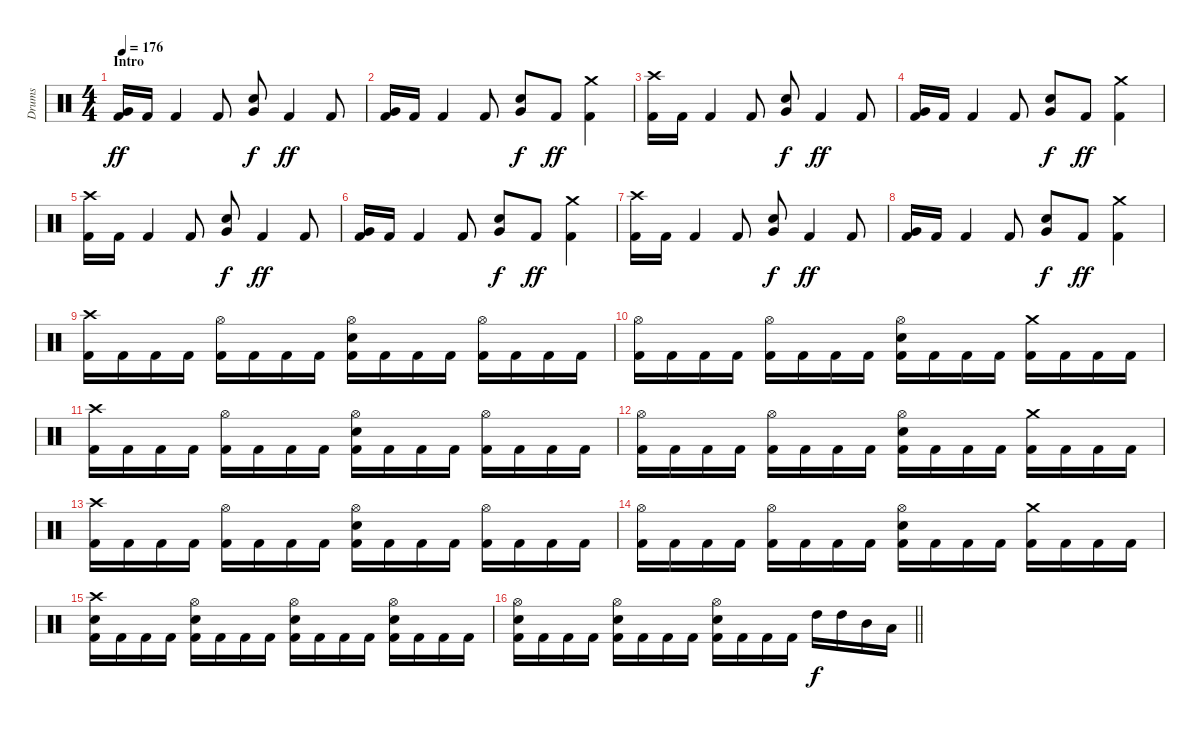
\track ("Drums" "Drums") {instrument percussion}
\staff {score}
\articulation defaults
\ts (4 4)
\section ("" "Intro")
\tempo 176
\clef neutral
\ks c
("Very Low Tom (hit)" "Kick (hit) 2").16{dy ff} "Kick (hit) 2".16 "Kick (hit) 2".4 "Kick (hit) 2".8 ("Very Low Tom (hit)" "Electric Snare (hit)").8{dy f} "Kick (hit) 2".4{dy ff} "Kick (hit) 2".8 |
("Very Low Tom (hit)" "Kick (hit) 2").16 "Kick (hit) 2".16 "Kick (hit) 2".4 "Kick (hit) 2".8 ("Very Low Tom (hit)" "Electric Snare (hit)").8{dy f} "Kick (hit) 2".8{dy ff} ("Crash medium (hit)" "Kick (hit) 2").4 |
("Crash high (hit)" "Kick (hit) 2").16 "Kick (hit) 2".16 "Kick (hit) 2".4 "Kick (hit) 2".8 ("Very Low Tom (hit)" "Electric Snare (hit)").8{dy f} "Kick (hit) 2".4{dy ff} "Kick (hit) 2".8 |
("Very Low Tom (hit)" "Kick (hit) 2").16 "Kick (hit) 2".16 "Kick (hit) 2".4 "Kick (hit) 2".8 ("Very Low Tom (hit)" "Electric Snare (hit)").8{dy f} "Kick (hit) 2".8{dy ff} ("Crash medium (hit)" "Kick (hit) 2").4 |
("Crash high (hit)" "Kick (hit) 2").16 "Kick (hit) 2".16 "Kick (hit) 2".4 "Kick (hit) 2".8 ("Very Low Tom (hit)" "Electric Snare (hit)").8{dy f} "Kick (hit) 2".4{dy ff} "Kick (hit) 2".8 |
("Very Low Tom (hit)" "Kick (hit) 2").16 "Kick (hit) 2".16 "Kick (hit) 2".4 "Kick (hit) 2".8 ("Very Low Tom (hit)" "Electric Snare (hit)").8{dy f} "Kick (hit) 2".8{dy ff} ("Crash medium (hit)" "Kick (hit) 2").4 |
("Crash high (hit)" "Kick (hit) 2").16 "Kick (hit) 2".16 "Kick (hit) 2".4 "Kick (hit) 2".8 ("Very Low Tom (hit)" "Electric Snare (hit)").8{dy f} "Kick (hit) 2".4{dy ff} "Kick (hit) 2".8 |
("Very Low Tom (hit)" "Kick (hit) 2").16 "Kick (hit) 2".16 "Kick (hit) 2".4 "Kick (hit) 2".8 ("Very Low Tom (hit)" "Electric Snare (hit)").8{dy f} "Kick (hit) 2".8{dy ff} ("Crash medium (hit)" "Kick (hit) 2").4 |
("Crash high (hit)" "Kick (hit) 2").16 "Kick (hit) 2".16 "Kick (hit) 2".16 "Kick (hit) 2".16 ("Hi-Hat (open)" "Kick (hit) 2").16 "Kick (hit) 2".16 "Kick (hit) 2".16 "Kick (hit) 2".16 ("Hi-Hat (open)" "Electric Snare (hit)" "Kick (hit) 2").16 "Kick (hit) 2".16 "Kick (hit) 2".16 "Kick (hit) 2".16 ("Hi-Hat (open)" "Kick (hit) 2").16 "Kick (hit) 2".16 "Kick (hit) 2".16 "Kick (hit) 2".16 |
("Hi-Hat (open)" "Kick (hit) 2").16 "Kick (hit) 2".16 "Kick (hit) 2".16 "Kick (hit) 2".16 ("Hi-Hat (open)" "Kick (hit) 2").16 "Kick (hit) 2".16 "Kick (hit) 2".16 "Kick (hit) 2".16 ("Hi-Hat (open)" "Electric Snare (hit)" "Kick (hit) 2").16 "Kick (hit) 2".16 "Kick (hit) 2".16 "Kick (hit) 2".16 ("Crash medium (hit)" "Kick (hit) 2").16 "Kick (hit) 2".16 "Kick (hit) 2".16 "Kick (hit) 2".16 |
("Crash high (hit)" "Kick (hit) 2").16 "Kick (hit) 2".16 "Kick (hit) 2".16 "Kick (hit) 2".16 ("Hi-Hat (open)" "Kick (hit) 2").16 "Kick (hit) 2".16 "Kick (hit) 2".16 "Kick (hit) 2".16 ("Hi-Hat (open)" "Electric Snare (hit)" "Kick (hit) 2").16 "Kick (hit) 2".16 "Kick (hit) 2".16 "Kick (hit) 2".16 ("Hi-Hat (open)" "Kick (hit) 2").16 "Kick (hit) 2".16 "Kick (hit) 2".16 "Kick (hit) 2".16 |
("Hi-Hat (open)" "Kick (hit) 2").16 "Kick (hit) 2".16 "Kick (hit) 2".16 "Kick (hit) 2".16 ("Hi-Hat (open)" "Kick (hit) 2").16 "Kick (hit) 2".16 "Kick (hit) 2".16 "Kick (hit) 2".16 ("Hi-Hat (open)" "Electric Snare (hit)" "Kick (hit) 2").16 "Kick (hit) 2".16 "Kick (hit) 2".16 "Kick (hit) 2".16 ("Crash medium (hit)" "Kick (hit) 2").16 "Kick (hit) 2".16 "Kick (hit) 2".16 "Kick (hit) 2".16 |
("Crash high (hit)" "Kick (hit) 2").16 "Kick (hit) 2".16 "Kick (hit) 2".16 "Kick (hit) 2".16 ("Hi-Hat (open)" "Kick (hit) 2").16 "Kick (hit) 2".16 "Kick (hit) 2".16 "Kick (hit) 2".16 ("Hi-Hat (open)" "Electric Snare (hit)" "Kick (hit) 2").16 "Kick (hit) 2".16 "Kick (hit) 2".16 "Kick (hit) 2".16 ("Hi-Hat (open)" "Kick (hit) 2").16 "Kick (hit) 2".16 "Kick (hit) 2".16 "Kick (hit) 2".16 |
("Hi-Hat (open)" "Kick (hit) 2").16 "Kick (hit) 2".16 "Kick (hit) 2".16 "Kick (hit) 2".16 ("Hi-Hat (open)" "Kick (hit) 2").16 "Kick (hit) 2".16 "Kick (hit) 2".16 "Kick (hit) 2".16 ("Hi-Hat (open)" "Electric Snare (hit)" "Kick (hit) 2").16 "Kick (hit) 2".16 "Kick (hit) 2".16 "Kick (hit) 2".16 ("Crash medium (hit)" "Kick (hit) 2").16 "Kick (hit) 2".16 "Kick (hit) 2".16 "Kick (hit) 2".16 |
("Crash high (hit)" "Electric Snare (hit)" "Kick (hit) 2").16 "Kick (hit) 2".16 "Kick (hit) 2".16 "Kick (hit) 2".16 ("Hi-Hat (open)" "Electric Snare (hit)" "Kick (hit) 2").16 "Kick (hit) 2".16 "Kick (hit) 2".16 "Kick (hit) 2".16 ("Hi-Hat (open)" "Electric Snare (hit)" "Kick (hit) 2").16 "Kick (hit) 2".16 "Kick (hit) 2".16 "Kick (hit) 2".16 ("Hi-Hat (open)" "Electric Snare (hit)" "Kick (hit) 2").16 "Kick (hit) 2".16 "Kick (hit) 2".16 "Kick (hit) 2".16 |
\barLineRight lightlight
("Hi-Hat (open)" "Electric Snare (hit)" "Kick (hit) 2").16 "Kick (hit) 2".16 "Kick (hit) 2".16 "Kick (hit) 2".16 ("Hi-Hat (open)" "Electric Snare (hit)" "Kick (hit) 2").16 "Kick (hit) 2".16 "Kick (hit) 2".16 "Kick (hit) 2".16 ("Hi-Hat (open)" "Electric Snare (hit)" "Kick (hit) 2").16 "Kick (hit) 2".16 "Kick (hit) 2".16 "Kick (hit) 2".16 "High Tom (hit)".16{dy f} "High Tom (hit)".16 "Mid Tom (hit)".16 "Low Tom (hit)".16
